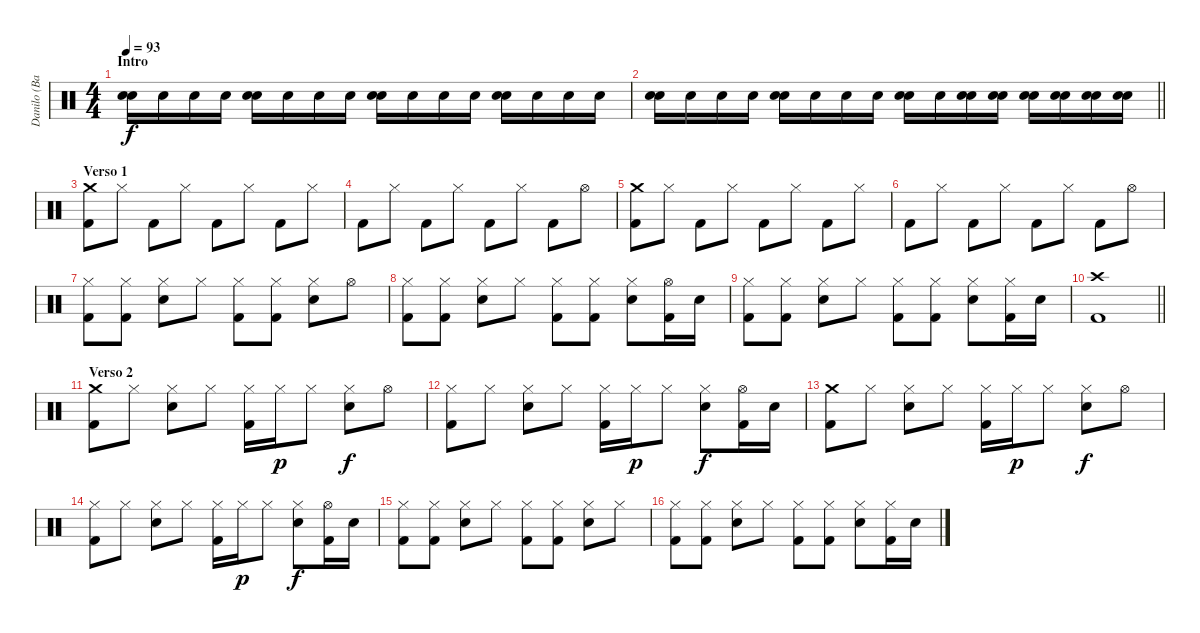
\track ("Danilo (Batteria)" "Danilo (Ba") {instrument percussion}
\staff {score}
\articulation defaults
\ts (4 4)
\section ("" "Intro")
\tempo 93
\clef neutral
\ks c
("Electric Snare (hit)" "Snare (hit) 2").16{dy f} "Snare (hit) 2".16 "Snare (hit) 2".16 "Snare (hit) 2".16 ("Electric Snare (hit)" "Snare (hit) 2").16 "Snare (hit) 2".16 "Snare (hit) 2".16 "Snare (hit) 2".16 ("Electric Snare (hit)" "Snare (hit) 2").16 "Snare (hit) 2".16 "Snare (hit) 2".16 "Snare (hit) 2".16 ("Electric Snare (hit)" "Snare (hit) 2").16 "Snare (hit) 2".16 "Snare (hit) 2".16 "Snare (hit) 2".16 |
\barLineRight lightlight
("Electric Snare (hit)" "Snare (hit) 2").16 "Snare (hit) 2".16 "Snare (hit) 2".16 "Snare (hit) 2".16 ("Electric Snare (hit)" "Snare (hit) 2").16 "Snare (hit) 2".16 "Snare (hit) 2".16 "Snare (hit) 2".16 ("Electric Snare (hit)" "Snare (hit) 2").16 "Snare (hit) 2".16 ("Electric Snare (hit)" "Snare (hit) 2").16 ("Electric Snare (hit)" "Snare (hit) 2").16 ("Electric Snare (hit)" "Snare (hit) 2").16 ("Electric Snare (hit)" "Snare (hit) 2").16 ("Electric Snare (hit)" "Snare (hit) 2").16 ("Electric Snare (hit)" "Snare (hit) 2").16 |
\section ("" "Verso 1")
("Crash medium (hit)" "Kick (hit) 2").8 "Hi-Hat (closed)".8 "Kick (hit) 2".8 "Hi-Hat (closed)".8 "Kick (hit) 2".8 "Hi-Hat (closed)".8 "Kick (hit) 2".8 "Hi-Hat (closed)".8 |
"Kick (hit) 2".8 "Hi-Hat (closed)".8 "Kick (hit) 2".8 "Hi-Hat (closed)".8 "Kick (hit) 2".8 "Hi-Hat (closed)".8 "Kick (hit) 2".8 "Hi-Hat (open)".8 |
("Crash medium (hit)" "Kick (hit) 2").8 "Hi-Hat (closed)".8 "Kick (hit) 2".8 "Hi-Hat (closed)".8 "Kick (hit) 2".8 "Hi-Hat (closed)".8 "Kick (hit) 2".8 "Hi-Hat (closed)".8 |
"Kick (hit) 2".8 "Hi-Hat (closed)".8 "Kick (hit) 2".8 "Hi-Hat (closed)".8 "Kick (hit) 2".8 "Hi-Hat (closed)".8 "Kick (hit) 2".8 "Hi-Hat (open)".8 |
("Hi-Hat (closed)" "Kick (hit) 2").8 ("Hi-Hat (closed)" "Kick (hit) 2").8 ("Hi-Hat (closed)" "Electric Snare (hit)").8 "Hi-Hat (closed)".8 ("Hi-Hat (closed)" "Kick (hit) 2").8 ("Hi-Hat (closed)" "Kick (hit) 2").8 ("Hi-Hat (closed)" "Electric Snare (hit)").8 "Hi-Hat (open)".8 |
("Hi-Hat (closed)" "Kick (hit) 2").8 ("Hi-Hat (closed)" "Kick (hit) 2").8 ("Hi-Hat (closed)" "Electric Snare (hit)").8 "Hi-Hat (closed)".8 ("Hi-Hat (closed)" "Kick (hit) 2").8 ("Hi-Hat (closed)" "Kick (hit) 2").8 ("Hi-Hat (closed)" "Electric Snare (hit)").8 ("Hi-Hat (open)" "Kick (hit) 2").16 "Electric Snare (hit)".16 |
("Hi-Hat (closed)" "Kick (hit) 2").8 ("Hi-Hat (closed)" "Kick (hit) 2").8 ("Hi-Hat (closed)" "Electric Snare (hit)").8 "Hi-Hat (closed)".8 ("Hi-Hat (closed)" "Kick (hit) 2").8 ("Hi-Hat (closed)" "Kick (hit) 2").8 ("Hi-Hat (closed)" "Electric Snare (hit)").8 ("Hi-Hat (closed)" "Kick (hit) 2").16 "Electric Snare (hit)".16 |
\barLineRight lightlight
("Crash high (hit)" "Kick (hit) 2").1 |
\section ("" "Verso 2")
("Crash medium (hit)" "Kick (hit) 2").8 "Hi-Hat (closed)".8 ("Hi-Hat (closed)" "Electric Snare (hit)").8 "Hi-Hat (closed)".8 ("Hi-Hat (closed)" "Kick (hit) 2").16 "Hi-Hat (closed)".16{dy p} "Hi-Hat (closed)".8 ("Hi-Hat (closed)" "Electric Snare (hit)").8{dy f} "Hi-Hat (open)".8 |
("Hi-Hat (closed)" "Kick (hit) 2").8 "Hi-Hat (closed)".8 ("Hi-Hat (closed)" "Electric Snare (hit)").8 "Hi-Hat (closed)".8 ("Hi-Hat (closed)" "Kick (hit) 2").16 "Hi-Hat (closed)".16{dy p} "Hi-Hat (closed)".8 ("Hi-Hat (closed)" "Electric Snare (hit)").8{dy f} ("Hi-Hat (open)" "Kick (hit) 2").16 "Electric Snare (hit)".16 |
("Crash medium (hit)" "Kick (hit) 2").8 "Hi-Hat (closed)".8 ("Hi-Hat (closed)" "Electric Snare (hit)").8 "Hi-Hat (closed)".8 ("Hi-Hat (closed)" "Kick (hit) 2").16 "Hi-Hat (closed)".16{dy p} "Hi-Hat (closed)".8 ("Hi-Hat (closed)" "Electric Snare (hit)").8{dy f} "Hi-Hat (open)".8 |
("Hi-Hat (closed)" "Kick (hit) 2").8 "Hi-Hat (closed)".8 ("Hi-Hat (closed)" "Electric Snare (hit)").8 "Hi-Hat (closed)".8 ("Hi-Hat (closed)" "Kick (hit) 2").16 "Hi-Hat (closed)".16{dy p} "Hi-Hat (closed)".8 ("Hi-Hat (closed)" "Electric Snare (hit)").8{dy f} ("Hi-Hat (open)" "Kick (hit) 2").16 "Electric Snare (hit)".16 |
("Hi-Hat (closed)" "Kick (hit) 2").8 ("Hi-Hat (closed)" "Kick (hit) 2").8 ("Hi-Hat (closed)" "Electric Snare (hit)").8 "Hi-Hat (closed)".8 ("Hi-Hat (closed)" "Kick (hit) 2").8 ("Hi-Hat (closed)" "Kick (hit) 2").8 ("Hi-Hat (closed)" "Electric Snare (hit)").8 "Hi-Hat (closed)".8 |
("Hi-Hat (closed)" "Kick (hit) 2").8 ("Hi-Hat (closed)" "Kick (hit) 2").8 ("Hi-Hat (closed)" "Electric Snare (hit)").8 "Hi-Hat (closed)".8 ("Hi-Hat (closed)" "Kick (hit) 2").8 ("Hi-Hat (closed)" "Kick (hit) 2").8 ("Hi-Hat (closed)" "Electric Snare (hit)").8 ("Hi-Hat (closed)" "Kick (hit) 2").16 "Electric Snare (hit)".16
